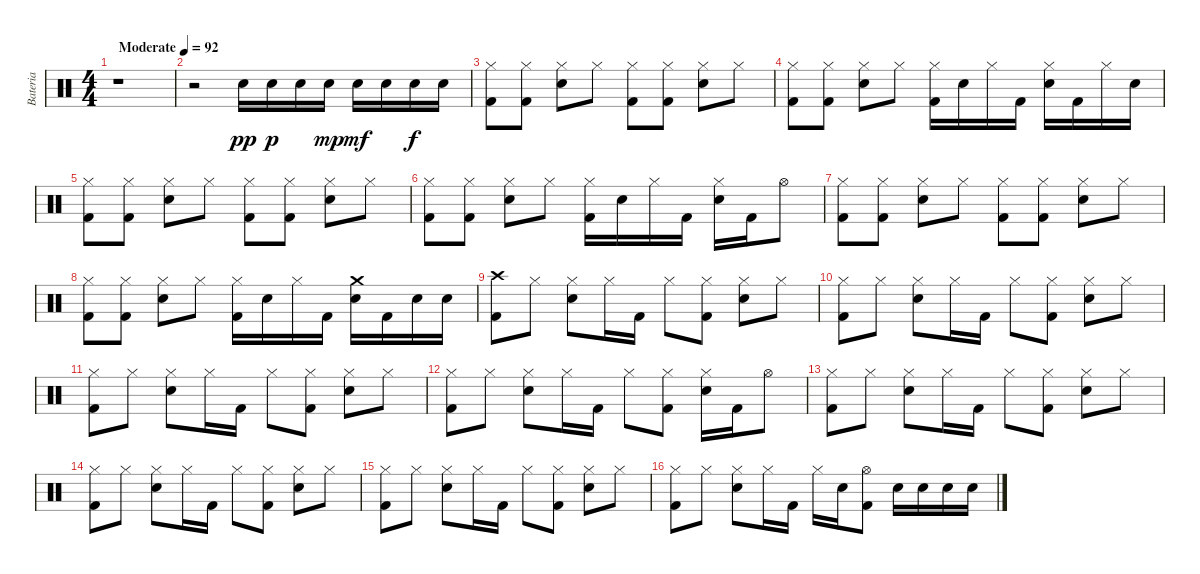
\track ("Bateria" "Bateria") {instrument percussion}
\staff {score}
\articulation defaults
\ts (4 4)
\tempo (92 "Moderate")
\clef neutral
\ks c
r.1{dy pp} |
r.2 "Electric Snare (hit)".16 "Electric Snare (hit)".16{dy p} "Electric Snare (hit)".16 "Electric Snare (hit)".16{dy mp} "Electric Snare (hit)".16{dy mf} "Electric Snare (hit)".16 "Electric Snare (hit)".16{dy f} "Electric Snare (hit)".16 |
("Hi-Hat (closed)" "Kick (hit) 2").8 ("Hi-Hat (closed)" "Kick (hit) 2").8 ("Electric Snare (hit)" "Hi-Hat (closed)").8 "Hi-Hat (closed)".8 ("Hi-Hat (closed)" "Kick (hit) 2").8 ("Hi-Hat (closed)" "Kick (hit) 2").8 ("Electric Snare (hit)" "Hi-Hat (closed)").8 "Hi-Hat (closed)".8 |
("Hi-Hat (closed)" "Kick (hit) 2").8 ("Hi-Hat (closed)" "Kick (hit) 2").8 ("Electric Snare (hit)" "Hi-Hat (closed)").8 "Hi-Hat (closed)".8 ("Hi-Hat (closed)" "Kick (hit) 2").16 "Electric Snare (hit)".16 "Hi-Hat (closed)".16 "Kick (hit) 2".16 ("Electric Snare (hit)" "Hi-Hat (closed)").16 "Kick (hit) 2".16 "Hi-Hat (closed)".16 "Electric Snare (hit)".16 |
("Hi-Hat (closed)" "Kick (hit) 2").8 ("Hi-Hat (closed)" "Kick (hit) 2").8 ("Electric Snare (hit)" "Hi-Hat (closed)").8 "Hi-Hat (closed)".8 ("Hi-Hat (closed)" "Kick (hit) 2").8 ("Hi-Hat (closed)" "Kick (hit) 2").8 ("Electric Snare (hit)" "Hi-Hat (closed)").8 "Hi-Hat (closed)".8 |
("Hi-Hat (closed)" "Kick (hit) 2").8 ("Hi-Hat (closed)" "Kick (hit) 2").8 ("Electric Snare (hit)" "Hi-Hat (closed)").8 "Hi-Hat (closed)".8 ("Hi-Hat (closed)" "Kick (hit) 2").16 "Electric Snare (hit)".16 "Hi-Hat (closed)".16 "Kick (hit) 2".16 ("Electric Snare (hit)" "Hi-Hat (closed)").16 "Kick (hit) 2".16 "Hi-Hat (open)".8 |
("Hi-Hat (closed)" "Kick (hit) 2").8 ("Hi-Hat (closed)" "Kick (hit) 2").8 ("Electric Snare (hit)" "Hi-Hat (closed)").8 "Hi-Hat (closed)".8 ("Hi-Hat (closed)" "Kick (hit) 2").8 ("Hi-Hat (closed)" "Kick (hit) 2").8 ("Electric Snare (hit)" "Hi-Hat (closed)").8 "Hi-Hat (closed)".8 |
("Hi-Hat (closed)" "Kick (hit) 2").8 ("Hi-Hat (closed)" "Kick (hit) 2").8 ("Electric Snare (hit)" "Hi-Hat (closed)").8 "Hi-Hat (closed)".8 ("Hi-Hat (closed)" "Kick (hit) 2").16 "Electric Snare (hit)".16 "Hi-Hat (closed)".16 "Kick (hit) 2".16 ("Crash medium (hit)" "Electric Snare (hit)").16 "Kick (hit) 2".16 "Electric Snare (hit)".16 "Electric Snare (hit)".16 |
("Crash high (hit)" "Kick (hit) 2").8 "Hi-Hat (closed)".8 ("Electric Snare (hit)" "Hi-Hat (closed)").8 "Hi-Hat (closed)".16 "Kick (hit) 2".16 "Hi-Hat (closed)".8 ("Hi-Hat (closed)" "Kick (hit) 2").8 ("Electric Snare (hit)" "Hi-Hat (closed)").8 "Hi-Hat (closed)".8 |
("Hi-Hat (closed)" "Kick (hit) 2").8 "Hi-Hat (closed)".8 ("Electric Snare (hit)" "Hi-Hat (closed)").8 "Hi-Hat (closed)".16 "Kick (hit) 2".16 "Hi-Hat (closed)".8 ("Hi-Hat (closed)" "Kick (hit) 2").8 ("Electric Snare (hit)" "Hi-Hat (closed)").8 "Hi-Hat (closed)".8 |
("Hi-Hat (closed)" "Kick (hit) 2").8 "Hi-Hat (closed)".8 ("Electric Snare (hit)" "Hi-Hat (closed)").8 "Hi-Hat (closed)".16 "Kick (hit) 2".16 "Hi-Hat (closed)".8 ("Hi-Hat (closed)" "Kick (hit) 2").8 ("Electric Snare (hit)" "Hi-Hat (closed)").8 "Hi-Hat (closed)".8 |
("Hi-Hat (closed)" "Kick (hit) 2").8 "Hi-Hat (closed)".8 ("Electric Snare (hit)" "Hi-Hat (closed)").8 "Hi-Hat (closed)".16 "Kick (hit) 2".16 "Hi-Hat (closed)".8 ("Hi-Hat (closed)" "Kick (hit) 2").8 ("Electric Snare (hit)" "Hi-Hat (closed)").16 "Kick (hit) 2".16 "Hi-Hat (open)".8 |
("Hi-Hat (closed)" "Kick (hit) 2").8 "Hi-Hat (closed)".8 ("Electric Snare (hit)" "Hi-Hat (closed)").8 "Hi-Hat (closed)".16 "Kick (hit) 2".16 "Hi-Hat (closed)".8 ("Hi-Hat (closed)" "Kick (hit) 2").8 ("Electric Snare (hit)" "Hi-Hat (closed)").8 "Hi-Hat (closed)".8 |
("Hi-Hat (closed)" "Kick (hit) 2").8 "Hi-Hat (closed)".8 ("Electric Snare (hit)" "Hi-Hat (closed)").8 "Hi-Hat (closed)".16 "Kick (hit) 2".16 "Hi-Hat (closed)".8 ("Hi-Hat (closed)" "Kick (hit) 2").8 ("Electric Snare (hit)" "Hi-Hat (closed)").8 "Hi-Hat (closed)".8 |
("Hi-Hat (closed)" "Kick (hit) 2").8 "Hi-Hat (closed)".8 ("Electric Snare (hit)" "Hi-Hat (closed)").8 "Hi-Hat (closed)".16 "Kick (hit) 2".16 "Hi-Hat (closed)".8 ("Hi-Hat (closed)" "Kick (hit) 2").8 ("Electric Snare (hit)" "Hi-Hat (closed)").8 "Hi-Hat (closed)".8 |
("Hi-Hat (closed)" "Kick (hit) 2").8 "Hi-Hat (closed)".8 ("Electric Snare (hit)" "Hi-Hat (closed)").8 "Hi-Hat (closed)".16 "Kick (hit) 2".16 "Hi-Hat (closed)".16 "Electric Snare (hit)".16 ("Hi-Hat (open)" "Kick (hit) 2").8 "Electric Snare (hit)".16 "Electric Snare (hit)".16 "Electric Snare (hit)".16 "Electric Snare (hit)".16
